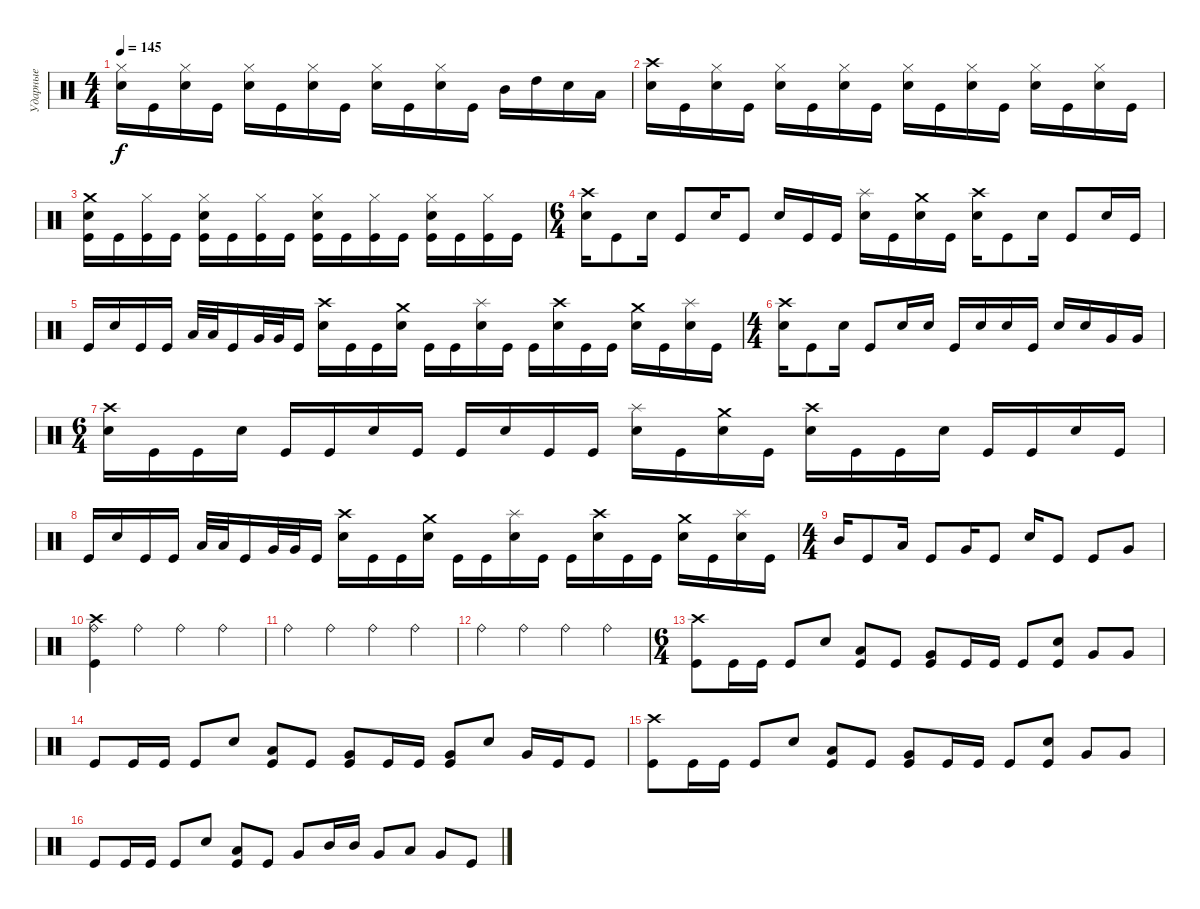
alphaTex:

\track ("Ударные" "Ударные") {instrument percussion}
\staff {score}
\articulation defaults
\ts (4 4)
\tempo 145
\clef neutral
\ks c
("Hi-Hat (closed)" "Electric Snare (hit)").16{dy f} "Kick (hit)".16 ("Hi-Hat (closed)" "Electric Snare (hit)").16 "Kick (hit)".16 ("Hi-Hat (closed)" "Electric Snare (hit)").16 "Kick (hit)".16 ("Hi-Hat (closed)" "Electric Snare (hit)").16 "Kick (hit)".16 ("Hi-Hat (closed)" "Electric Snare (hit)").16 "Kick (hit)".16 ("Hi-Hat (closed)" "Electric Snare (hit)").16 "Kick (hit)".16 "Mid Tom (hit)".16 "High Tom (hit)".16 "Electric Snare (hit)".16 "Low Tom (hit)".16 |
("Crash high (hit)" "Electric Snare (hit)").16 "Kick (hit)".16 ("Hi-Hat (closed)" "Electric Snare (hit)").16 "Kick (hit)".16 ("Hi-Hat (closed)" "Electric Snare (hit)").16 "Kick (hit)".16 ("Hi-Hat (closed)" "Electric Snare (hit)").16 "Kick (hit)".16 ("Hi-Hat (closed)" "Electric Snare (hit)").16 "Kick (hit)".16 ("Hi-Hat (closed)" "Electric Snare (hit)").16 "Kick (hit)".16 ("Hi-Hat (closed)" "Electric Snare (hit)").16 "Kick (hit)".16 ("Hi-Hat (closed)" "Electric Snare (hit)").16 "Kick (hit)".16 |
("Crash medium (hit)" "Electric Snare (hit)" "Kick (hit)").16 "Kick (hit)".16 ("Hi-Hat (closed)" "Kick (hit)").16 "Kick (hit)".16 ("Hi-Hat (closed)" "Electric Snare (hit)" "Kick (hit)").16 "Kick (hit)".16 ("Hi-Hat (closed)" "Kick (hit)").16 "Kick (hit)".16 ("Hi-Hat (closed)" "Electric Snare (hit)" "Kick (hit)").16 "Kick (hit)".16 ("Hi-Hat (closed)" "Kick (hit)").16 "Kick (hit)".16 ("Hi-Hat (closed)" "Electric Snare (hit)" "Kick (hit)").16 "Kick (hit)".16 ("Hi-Hat (closed)" "Kick (hit)").16 "Kick (hit)".16 |
\ts (6 4)
("Crash high (hit)" "Electric Snare (hit)").16 "Kick (hit)".8 "Electric Snare (hit)".16 "Kick (hit)".8 "Electric Snare (hit)".16 "Kick (hit)".8 "Electric Snare (hit)".16 "Kick (hit)".16 "Kick (hit)".16 ("Splash (hit)" "Electric Snare (hit)").16 "Kick (hit)".16 ("Crash medium (hit)" "Electric Snare (hit)").16 "Kick (hit)".16 ("Crash high (hit)" "Electric Snare (hit)").16 "Kick (hit)".8 "Electric Snare (hit)".16 "Kick (hit)".8 "Electric Snare (hit)".16 "Kick (hit)".16 |
"Kick (hit)".16 "Electric Snare (hit)".16 "Kick (hit)".16 "Kick (hit)".16 "Low Tom (hit)".32 "Low Tom (hit)".32 "Kick (hit)".16 "Very Low Tom (hit)".32 "Very Low Tom (hit)".32 "Kick (hit)".16 ("Crash high (hit)" "Electric Snare (hit)").16 "Kick (hit)".16 "Kick (hit)".16 ("Crash medium (hit)" "Electric Snare (hit)").16 "Kick (hit)".16 "Kick (hit)".16 ("Splash (hit)" "Electric Snare (hit)").16 "Kick (hit)".16 "Kick (hit)".16 ("Crash high (hit)" "Electric Snare (hit)").16 "Kick (hit)".16 "Kick (hit)".16 ("Crash medium (hit)" "Electric Snare (hit)").16 "Kick (hit)".16 ("Splash (hit)" "Electric Snare (hit)").16 "Kick (hit)".16 |
\ts (4 4)
("Crash high (hit)" "Electric Snare (hit)").16 "Kick (hit)".8 "Electric Snare (hit)".16 "Kick (hit)".8 "Electric Snare (hit)".16 "Electric Snare (hit)".16 "Kick (hit)".16 "Electric Snare (hit)".16 "Electric Snare (hit)".16 "Kick (hit)".16 "Electric Snare (hit)".16 "Electric Snare (hit)".16 "Very Low Tom (hit)".16 "Very Low Tom (hit)".16 |
\ts (6 4)
("Crash high (hit)" "Electric Snare (hit)").16 "Kick (hit)".16 "Kick (hit)".16 "Electric Snare (hit)".16 "Kick (hit)".16 "Kick (hit)".16 "Electric Snare (hit)".16 "Kick (hit)".16 "Kick (hit)".16 "Electric Snare (hit)".16 "Kick (hit)".16 "Kick (hit)".16 ("Splash (hit)" "Electric Snare (hit)").16 "Kick (hit)".16 ("Crash medium (hit)" "Electric Snare (hit)").16 "Kick (hit)".16 ("Crash high (hit)" "Electric Snare (hit)").16 "Kick (hit)".16 "Kick (hit)".16 "Electric Snare (hit)".16 "Kick (hit)".16 "Kick (hit)".16 "Electric Snare (hit)".16 "Kick (hit)".16 |
"Kick (hit)".16 "Electric Snare (hit)".16 "Kick (hit)".16 "Kick (hit)".16 "Low Tom (hit)".32 "Low Tom (hit)".32 "Kick (hit)".16 "Very Low Tom (hit)".32 "Very Low Tom (hit)".32 "Kick (hit)".16 ("Crash high (hit)" "Electric Snare (hit)").16 "Kick (hit)".16 "Kick (hit)".16 ("Crash medium (hit)" "Electric Snare (hit)").16 "Kick (hit)".16 "Kick (hit)".16 ("Splash (hit)" "Electric Snare (hit)").16 "Kick (hit)".16 "Kick (hit)".16 ("Crash high (hit)" "Electric Snare (hit)").16 "Kick (hit)".16 "Kick (hit)".16 ("Crash medium (hit)" "Electric Snare (hit)").16 "Kick (hit)".16 ("Splash (hit)" "Electric Snare (hit)").16 "Kick (hit)".16 |
\ts (4 4)
"Mid Tom (hit)".16 "Kick (hit)".8 "Low Tom (hit)".16 "Kick (hit)".8 "Very Low Tom (hit)".16 "Kick (hit)".8 "Electric Snare (hit)".16 "Kick (hit)".8 "Kick (hit)".8 "Very Low Tom (hit)".8 |
("Crash high (hit)" "Ride (bell)" "Kick (hit)").4 "Ride (bell)".4 "Ride (bell)".4 "Ride (bell)".4 |
"Ride (bell)".4 "Ride (bell)".4 "Ride (bell)".4 "Ride (bell)".4 |
"Ride (bell)".4 "Ride (bell)".4 "Ride (bell)".4 "Ride (bell)".4 |
\ts (6 4)
("Crash high (hit)" "Kick (hit)").8 "Kick (hit)".16 "Kick (hit)".16 "Kick (hit)".8 "Electric Snare (hit)".8 ("Low Tom (hit)" "Kick (hit)").8 "Kick (hit)".8 ("Very Low Tom (hit)" "Kick (hit)").8 "Kick (hit)".16 "Kick (hit)".16 "Kick (hit)".8 ("Electric Snare (hit)" "Kick (hit)").8 "Very Low Tom (hit)".8 "Very Low Tom (hit)".8 |
"Kick (hit)".8 "Kick (hit)".16 "Kick (hit)".16 "Kick (hit)".8 "Electric Snare (hit)".8 ("Low Tom (hit)" "Kick (hit)").8 "Kick (hit)".8 ("Very Low Tom (hit)" "Kick (hit)").8 "Kick (hit)".16 "Kick (hit)".16 ("Very Low Tom (hit)" "Kick (hit)").8 "Electric Snare (hit)".8 "Very Low Tom (hit)".16 "Kick (hit)".16 "Kick (hit)".8 |
("Crash high (hit)" "Kick (hit)").8 "Kick (hit)".16 "Kick (hit)".16 "Kick (hit)".8 "Electric Snare (hit)".8 ("Low Tom (hit)" "Kick (hit)").8 "Kick (hit)".8 ("Very Low Tom (hit)" "Kick (hit)").8 "Kick (hit)".16 "Kick (hit)".16 "Kick (hit)".8 ("Electric Snare (hit)" "Kick (hit)").8 "Very Low Tom (hit)".8 "Very Low Tom (hit)".8 |
"Kick (hit)".8 "Kick (hit)".16 "Kick (hit)".16 "Kick (hit)".8 "Electric Snare (hit)".8 ("Low Tom (hit)" "Kick (hit)").8 "Kick (hit)".8 "Very Low Tom (hit)".8 "Mid Tom (hit)".16 "Mid Tom (hit)".16 "Very Low Tom (hit)".8 "Low Tom (hit)".8 "Very Low Tom (hit)".8 "Kick (hit)".8
